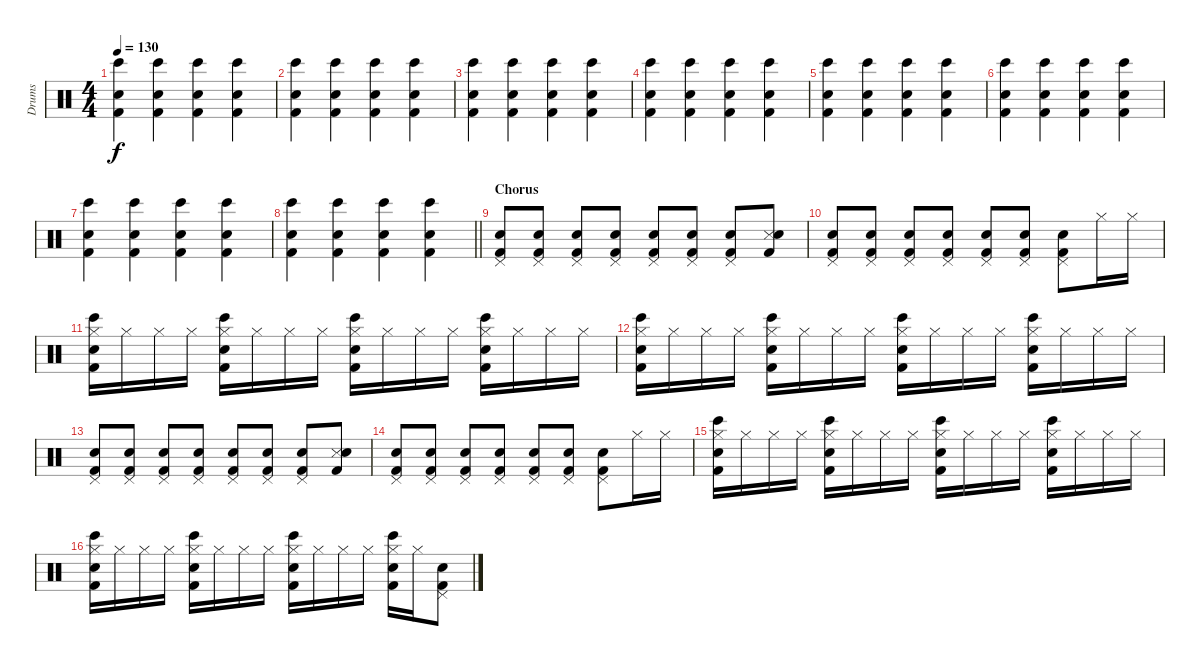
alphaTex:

\track ("Drums" "Drums") {instrument percussion}
\staff {score}
\articulation defaults
\ts (4 4)
\tempo 130
\clef neutral
\ks c
("Electric Snare (hit)" "Kick (hit) 2" "Bongo High (hit)").4{dy f} ("Electric Snare (hit)" "Kick (hit) 2" "Bongo High (hit)").4 ("Electric Snare (hit)" "Kick (hit) 2" "Bongo High (hit)").4 ("Electric Snare (hit)" "Kick (hit) 2" "Bongo High (hit)").4 |
("Electric Snare (hit)" "Kick (hit) 2" "Bongo High (hit)").4 ("Electric Snare (hit)" "Kick (hit) 2" "Bongo High (hit)").4 ("Electric Snare (hit)" "Kick (hit) 2" "Bongo High (hit)").4 ("Electric Snare (hit)" "Kick (hit) 2" "Bongo High (hit)").4 |
("Electric Snare (hit)" "Kick (hit) 2" "Bongo High (hit)").4 ("Electric Snare (hit)" "Kick (hit) 2" "Bongo High (hit)").4 ("Electric Snare (hit)" "Kick (hit) 2" "Bongo High (hit)").4 ("Electric Snare (hit)" "Kick (hit) 2" "Bongo High (hit)").4 |
("Electric Snare (hit)" "Kick (hit) 2" "Bongo High (hit)").4 ("Electric Snare (hit)" "Kick (hit) 2" "Bongo High (hit)").4 ("Electric Snare (hit)" "Kick (hit) 2" "Bongo High (hit)").4 ("Electric Snare (hit)" "Kick (hit) 2" "Bongo High (hit)").4 |
("Electric Snare (hit)" "Kick (hit) 2" "Bongo High (hit)").4 ("Electric Snare (hit)" "Kick (hit) 2" "Bongo High (hit)").4 ("Electric Snare (hit)" "Kick (hit) 2" "Bongo High (hit)").4 ("Electric Snare (hit)" "Kick (hit) 2" "Bongo High (hit)").4 |
("Electric Snare (hit)" "Kick (hit) 2" "Bongo High (hit)").4 ("Electric Snare (hit)" "Kick (hit) 2" "Bongo High (hit)").4 ("Electric Snare (hit)" "Kick (hit) 2" "Bongo High (hit)").4 ("Electric Snare (hit)" "Kick (hit) 2" "Bongo High (hit)").4 |
("Electric Snare (hit)" "Kick (hit) 2" "Bongo High (hit)").4 ("Electric Snare (hit)" "Kick (hit) 2" "Bongo High (hit)").4 ("Electric Snare (hit)" "Kick (hit) 2" "Bongo High (hit)").4 ("Electric Snare (hit)" "Kick (hit) 2" "Bongo High (hit)").4 |
\barLineRight lightlight
("Electric Snare (hit)" "Kick (hit) 2" "Bongo High (hit)").4 ("Electric Snare (hit)" "Kick (hit) 2" "Bongo High (hit)").4 ("Electric Snare (hit)" "Kick (hit) 2" "Bongo High (hit)").4 ("Electric Snare (hit)" "Kick (hit) 2" "Bongo High (hit)").4 |
\section ("" "Chorus")
("Pedal Hi-Hat (hit)" "Kick (hit) 2" "Electric Snare (hit)").8 ("Pedal Hi-Hat (hit)" "Kick (hit) 2" "Electric Snare (hit)").8 ("Pedal Hi-Hat (hit)" "Kick (hit) 2" "Electric Snare (hit)").8 ("Pedal Hi-Hat (hit)" "Kick (hit) 2" "Electric Snare (hit)").8 ("Pedal Hi-Hat (hit)" "Kick (hit) 2" "Electric Snare (hit)").8 ("Pedal Hi-Hat (hit)" "Kick (hit) 2" "Electric Snare (hit)").8 ("Pedal Hi-Hat (hit)" "Kick (hit) 2" "Electric Snare (hit)").8 ("Snare (side stick) 3" "Kick (hit) 2" "Electric Snare (hit)").8 |
("Pedal Hi-Hat (hit)" "Kick (hit) 2" "Electric Snare (hit)").8 ("Pedal Hi-Hat (hit)" "Kick (hit) 2" "Electric Snare (hit)").8 ("Pedal Hi-Hat (hit)" "Kick (hit) 2" "Electric Snare (hit)").8 ("Pedal Hi-Hat (hit)" "Kick (hit) 2" "Electric Snare (hit)").8 ("Pedal Hi-Hat (hit)" "Kick (hit) 2" "Electric Snare (hit)").8 ("Pedal Hi-Hat (hit)" "Kick (hit) 2" "Electric Snare (hit)").8 ("Pedal Hi-Hat (hit)" "Kick (hit) 2" "Electric Snare (hit)").8 "Hi-Hat (closed)".16 "Hi-Hat (closed)".16 |
("Hi-Hat (closed)" "Electric Snare (hit)" "Kick (hit) 2" "Bongo High (hit)").16 "Hi-Hat (closed)".16 "Hi-Hat (closed)".16 "Hi-Hat (closed)".16 ("Hi-Hat (closed)" "Electric Snare (hit)" "Kick (hit) 2" "Bongo High (hit)").16 "Hi-Hat (closed)".16 "Hi-Hat (closed)".16 "Hi-Hat (closed)".16 ("Hi-Hat (closed)" "Electric Snare (hit)" "Kick (hit) 2" "Bongo High (hit)").16 "Hi-Hat (closed)".16 "Hi-Hat (closed)".16 "Hi-Hat (closed)".16 ("Hi-Hat (closed)" "Electric Snare (hit)" "Kick (hit) 2" "Bongo High (hit)").16 "Hi-Hat (closed)".16 "Hi-Hat (closed)".16 "Hi-Hat (closed)".16 |
("Hi-Hat (closed)" "Electric Snare (hit)" "Kick (hit) 2" "Bongo High (hit)").16 "Hi-Hat (closed)".16 "Hi-Hat (closed)".16 "Hi-Hat (closed)".16 ("Hi-Hat (closed)" "Electric Snare (hit)" "Kick (hit) 2" "Bongo High (hit)").16 "Hi-Hat (closed)".16 "Hi-Hat (closed)".16 "Hi-Hat (closed)".16 ("Hi-Hat (closed)" "Electric Snare (hit)" "Kick (hit) 2" "Bongo High (hit)").16 "Hi-Hat (closed)".16 "Hi-Hat (closed)".16 "Hi-Hat (closed)".16 ("Hi-Hat (closed)" "Electric Snare (hit)" "Kick (hit) 2" "Bongo High (hit)").16 "Hi-Hat (closed)".16 "Hi-Hat (closed)".16 "Hi-Hat (closed)".16 |
("Pedal Hi-Hat (hit)" "Kick (hit) 2" "Electric Snare (hit)").8 ("Pedal Hi-Hat (hit)" "Kick (hit) 2" "Electric Snare (hit)").8 ("Pedal Hi-Hat (hit)" "Kick (hit) 2" "Electric Snare (hit)").8 ("Pedal Hi-Hat (hit)" "Kick (hit) 2" "Electric Snare (hit)").8 ("Pedal Hi-Hat (hit)" "Kick (hit) 2" "Electric Snare (hit)").8 ("Pedal Hi-Hat (hit)" "Kick (hit) 2" "Electric Snare (hit)").8 ("Pedal Hi-Hat (hit)" "Kick (hit) 2" "Electric Snare (hit)").8 ("Snare (side stick) 3" "Kick (hit) 2" "Electric Snare (hit)").8 |
("Pedal Hi-Hat (hit)" "Kick (hit) 2" "Electric Snare (hit)").8 ("Pedal Hi-Hat (hit)" "Kick (hit) 2" "Electric Snare (hit)").8 ("Pedal Hi-Hat (hit)" "Kick (hit) 2" "Electric Snare (hit)").8 ("Pedal Hi-Hat (hit)" "Kick (hit) 2" "Electric Snare (hit)").8 ("Pedal Hi-Hat (hit)" "Kick (hit) 2" "Electric Snare (hit)").8 ("Pedal Hi-Hat (hit)" "Kick (hit) 2" "Electric Snare (hit)").8 ("Pedal Hi-Hat (hit)" "Kick (hit) 2" "Electric Snare (hit)").8 "Hi-Hat (closed)".16 "Hi-Hat (closed)".16 |
("Hi-Hat (closed)" "Electric Snare (hit)" "Kick (hit) 2" "Bongo High (hit)").16 "Hi-Hat (closed)".16 "Hi-Hat (closed)".16 "Hi-Hat (closed)".16 ("Hi-Hat (closed)" "Electric Snare (hit)" "Kick (hit) 2" "Bongo High (hit)").16 "Hi-Hat (closed)".16 "Hi-Hat (closed)".16 "Hi-Hat (closed)".16 ("Hi-Hat (closed)" "Electric Snare (hit)" "Kick (hit) 2" "Bongo High (hit)").16 "Hi-Hat (closed)".16 "Hi-Hat (closed)".16 "Hi-Hat (closed)".16 ("Hi-Hat (closed)" "Electric Snare (hit)" "Kick (hit) 2" "Bongo High (hit)").16 "Hi-Hat (closed)".16 "Hi-Hat (closed)".16 "Hi-Hat (closed)".16 |
("Hi-Hat (closed)" "Electric Snare (hit)" "Kick (hit) 2" "Bongo High (hit)").16 "Hi-Hat (closed)".16 "Hi-Hat (closed)".16 "Hi-Hat (closed)".16 ("Hi-Hat (closed)" "Electric Snare (hit)" "Kick (hit) 2" "Bongo High (hit)").16 "Hi-Hat (closed)".16 "Hi-Hat (closed)".16 "Hi-Hat (closed)".16 ("Hi-Hat (closed)" "Electric Snare (hit)" "Kick (hit) 2" "Bongo High (hit)").16 "Hi-Hat (closed)".16 "Hi-Hat (closed)".16 "Hi-Hat (closed)".16 ("Hi-Hat (closed)" "Electric Snare (hit)" "Kick (hit) 2" "Bongo High (hit)").16 "Hi-Hat (closed)".16 ("Pedal Hi-Hat (hit)" "Kick (hit) 2" "Electric Snare (hit)").8
